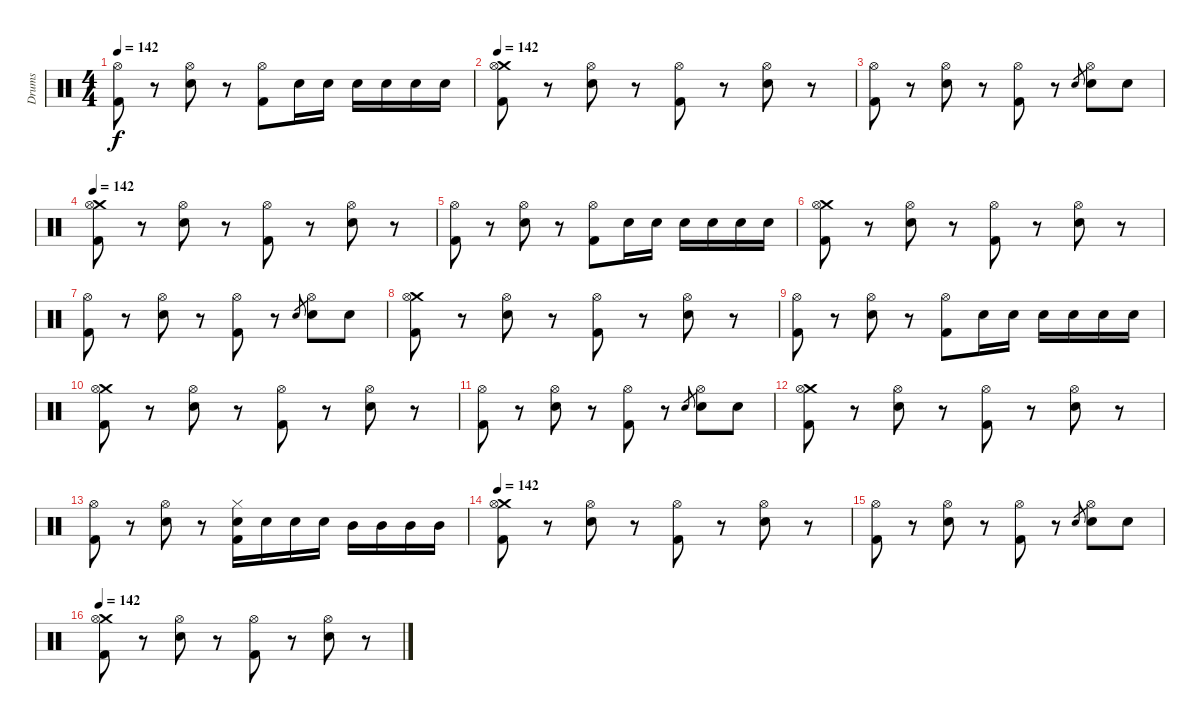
\track ("Drums" "Drums") {instrument percussion}
\staff {score}
\articulation defaults
\ts (4 4)
\tempo 142
\clef neutral
\ks c
("Kick (hit) 2" "Hi-Hat (open)").8{dy f} r.8 ("Snare (hit) 2" "Hi-Hat (open)").8 r.8 ("Kick (hit) 2" "Hi-Hat (open)").8 "Snare (hit) 2".16 "Snare (hit) 2".16 "Snare (hit) 2".16 "Snare (hit) 2".16 "Snare (hit) 2".16 "Snare (hit) 2".16 |
\tempo 142
("Kick (hit) 2" "Crash medium (hit)" "Hi-Hat (open)").8 r.8 ("Snare (hit) 2" "Hi-Hat (open)").8 r.8 ("Kick (hit) 2" "Hi-Hat (open)").8 r.8 ("Snare (hit) 2" "Hi-Hat (open)").8 r.8 |
("Kick (hit) 2" "Hi-Hat (open)").8 r.8 ("Snare (hit) 2" "Hi-Hat (open)").8 r.8 ("Kick (hit) 2" "Hi-Hat (open)").8 r.8 "Snare (hit) 2".8{gr} ("Snare (hit) 2" "Hi-Hat (open)").8 "Snare (hit) 2".8 |
\tempo 142
("Kick (hit) 2" "Crash medium (hit)" "Hi-Hat (open)").8 r.8 ("Snare (hit) 2" "Hi-Hat (open)").8 r.8 ("Kick (hit) 2" "Hi-Hat (open)").8 r.8 ("Snare (hit) 2" "Hi-Hat (open)").8 r.8 |
("Kick (hit) 2" "Hi-Hat (open)").8 r.8 ("Snare (hit) 2" "Hi-Hat (open)").8 r.8 ("Kick (hit) 2" "Hi-Hat (open)").8 "Snare (hit) 2".16 "Snare (hit) 2".16 "Snare (hit) 2".16 "Snare (hit) 2".16 "Snare (hit) 2".16 "Snare (hit) 2".16 |
("Kick (hit) 2" "Crash medium (hit)" "Hi-Hat (open)").8 r.8 ("Snare (hit) 2" "Hi-Hat (open)").8 r.8 ("Kick (hit) 2" "Hi-Hat (open)").8 r.8 ("Snare (hit) 2" "Hi-Hat (open)").8 r.8 |
("Kick (hit) 2" "Hi-Hat (open)").8 r.8 ("Snare (hit) 2" "Hi-Hat (open)").8 r.8 ("Kick (hit) 2" "Hi-Hat (open)").8 r.8 "Snare (hit) 2".8{gr} ("Snare (hit) 2" "Hi-Hat (open)").8 "Snare (hit) 2".8 |
("Kick (hit) 2" "Crash medium (hit)" "Hi-Hat (open)").8 r.8 ("Snare (hit) 2" "Hi-Hat (open)").8 r.8 ("Kick (hit) 2" "Hi-Hat (open)").8 r.8 ("Snare (hit) 2" "Hi-Hat (open)").8 r.8 |
("Kick (hit) 2" "Hi-Hat (open)").8 r.8 ("Snare (hit) 2" "Hi-Hat (open)").8 r.8 ("Kick (hit) 2" "Hi-Hat (open)").8 "Snare (hit) 2".16 "Snare (hit) 2".16 "Snare (hit) 2".16 "Snare (hit) 2".16 "Snare (hit) 2".16 "Snare (hit) 2".16 |
("Kick (hit) 2" "Crash medium (hit)" "Hi-Hat (open)").8 r.8 ("Snare (hit) 2" "Hi-Hat (open)").8 r.8 ("Kick (hit) 2" "Hi-Hat (open)").8 r.8 ("Snare (hit) 2" "Hi-Hat (open)").8 r.8 |
("Kick (hit) 2" "Hi-Hat (open)").8 r.8 ("Snare (hit) 2" "Hi-Hat (open)").8 r.8 ("Kick (hit) 2" "Hi-Hat (open)").8 r.8 "Snare (hit) 2".8{gr} ("Snare (hit) 2" "Hi-Hat (open)").8 "Snare (hit) 2".8 |
("Kick (hit) 2" "Crash medium (hit)" "Hi-Hat (open)").8 r.8 ("Snare (hit) 2" "Hi-Hat (open)").8 r.8 ("Kick (hit) 2" "Hi-Hat (open)").8 r.8 ("Snare (hit) 2" "Hi-Hat (open)").8 r.8 |
("Kick (hit) 2" "Hi-Hat (open)").8 r.8 ("Snare (hit) 2" "Hi-Hat (open)").8 r.8 ("Kick (hit) 2" "Snare (hit) 2" "Hi-Hat (closed)").16 "Snare (hit) 2".16 "Snare (hit) 2".16 "Snare (hit) 2".16 "Mid Tom (hit)".16 "Mid Tom (hit)".16 "Mid Tom (hit)".16 "Mid Tom (hit)".16 |
\tempo 142
("Kick (hit) 2" "Crash medium (hit)" "Hi-Hat (open)").8 r.8 ("Snare (hit) 2" "Hi-Hat (open)").8 r.8 ("Kick (hit) 2" "Hi-Hat (open)").8 r.8 ("Snare (hit) 2" "Hi-Hat (open)").8 r.8 |
("Kick (hit) 2" "Hi-Hat (open)").8 r.8 ("Snare (hit) 2" "Hi-Hat (open)").8 r.8 ("Kick (hit) 2" "Hi-Hat (open)").8 r.8 "Snare (hit) 2".8{gr} ("Snare (hit) 2" "Hi-Hat (open)").8 "Snare (hit) 2".8 |
\tempo 142
("Kick (hit) 2" "Crash medium (hit)" "Hi-Hat (open)").8 r.8 ("Snare (hit) 2" "Hi-Hat (open)").8 r.8 ("Kick (hit) 2" "Hi-Hat (open)").8 r.8 ("Snare (hit) 2" "Hi-Hat (open)").8 r.8
